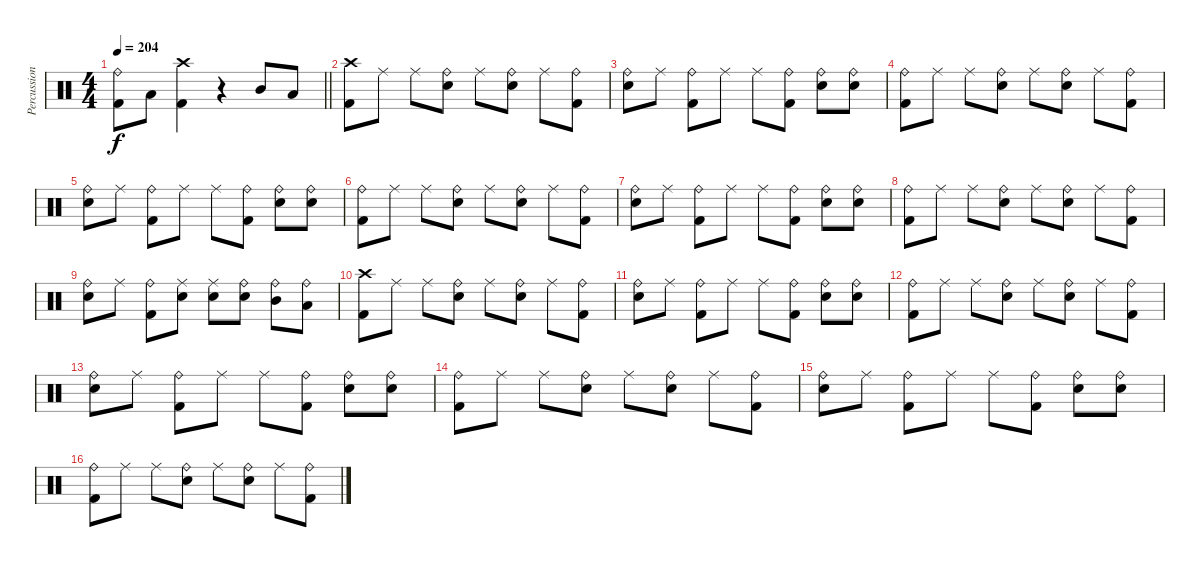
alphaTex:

\track ("Percussion" "Percussion") {instrument percussion}
\staff {score}
\articulation defaults
\ts (4 4)
\tempo 204
\clef neutral
\barLineRight lightlight
\ks c
("Ride (bell)" "Kick (hit) 2").8{dy f} "Low Floor Tom (hit)".8 ("Crash high (hit)" "Kick (hit) 2").4 r.4 "Mid Tom (hit)".8 "Low Floor Tom (hit)".8 |
("Crash high (hit)" "Kick (hit) 2").8 "Ride (middle)".8 "Ride (middle)".8 ("Ride (bell)" "Snare (hit) 2").8 "Ride (middle)".8 ("Ride (bell)" "Snare (hit) 2").8 "Ride (middle)".8 ("Ride (bell)" "Kick (hit) 2").8 |
("Ride (bell)" "Snare (hit) 2").8 "Ride (middle)".8 ("Ride (bell)" "Kick (hit) 2").8 "Ride (middle)".8 "Ride (middle)".8 ("Ride (bell)" "Kick (hit) 2").8 ("Ride (bell)" "Snare (hit) 2").8 ("Ride (bell)" "Snare (hit) 2").8 |
("Ride (bell)" "Kick (hit) 2").8 "Ride (middle)".8 "Ride (middle)".8 ("Ride (bell)" "Snare (hit) 2").8 "Ride (middle)".8 ("Ride (bell)" "Snare (hit) 2").8 "Ride (middle)".8 ("Ride (bell)" "Kick (hit) 2").8 |
("Ride (bell)" "Snare (hit) 2").8 "Ride (middle)".8 ("Ride (bell)" "Kick (hit) 2").8 "Ride (middle)".8 "Ride (middle)".8 ("Ride (bell)" "Kick (hit) 2").8 ("Ride (bell)" "Snare (hit) 2").8 ("Ride (bell)" "Snare (hit) 2").8 |
("Ride (bell)" "Kick (hit) 2").8 "Ride (middle)".8 "Ride (middle)".8 ("Ride (bell)" "Snare (hit) 2").8 "Ride (middle)".8 ("Ride (bell)" "Snare (hit) 2").8 "Ride (middle)".8 ("Ride (bell)" "Kick (hit) 2").8 |
("Ride (bell)" "Snare (hit) 2").8 "Ride (middle)".8 ("Ride (bell)" "Kick (hit) 2").8 "Ride (middle)".8 "Ride (middle)".8 ("Ride (bell)" "Kick (hit) 2").8 ("Ride (bell)" "Snare (hit) 2").8 ("Ride (bell)" "Snare (hit) 2").8 |
("Ride (bell)" "Kick (hit) 2").8 "Ride (middle)".8 "Ride (middle)".8 ("Ride (bell)" "Snare (hit) 2").8 "Ride (middle)".8 ("Ride (bell)" "Snare (hit) 2").8 "Ride (middle)".8 ("Ride (bell)" "Kick (hit) 2").8 |
("Ride (bell)" "Snare (hit) 2").8 "Ride (middle)".8 ("Ride (bell)" "Kick (hit) 2").8 ("Ride (middle)" "Snare (hit) 2").8 ("Ride (middle)" "Snare (hit) 2").8 ("Ride (bell)" "Snare (hit) 2").8 ("Ride (bell)" "Mid Tom (hit)").8 ("Ride (bell)" "Low Floor Tom (hit)").8 |
("Crash high (hit)" "Kick (hit) 2").8 "Ride (middle)".8 "Ride (middle)".8 ("Ride (bell)" "Snare (hit) 2").8 "Ride (middle)".8 ("Ride (bell)" "Snare (hit) 2").8 "Ride (middle)".8 ("Ride (bell)" "Kick (hit) 2").8 |
("Ride (bell)" "Snare (hit) 2").8 "Ride (middle)".8 ("Ride (bell)" "Kick (hit) 2").8 "Ride (middle)".8 "Ride (middle)".8 ("Ride (bell)" "Kick (hit) 2").8 ("Ride (bell)" "Snare (hit) 2").8 ("Ride (bell)" "Snare (hit) 2").8 |
("Ride (bell)" "Kick (hit) 2").8 "Ride (middle)".8 "Ride (middle)".8 ("Ride (bell)" "Snare (hit) 2").8 "Ride (middle)".8 ("Ride (bell)" "Snare (hit) 2").8 "Ride (middle)".8 ("Ride (bell)" "Kick (hit) 2").8 |
("Ride (bell)" "Snare (hit) 2").8 "Ride (middle)".8 ("Ride (bell)" "Kick (hit) 2").8 "Ride (middle)".8 "Ride (middle)".8 ("Ride (bell)" "Kick (hit) 2").8 ("Ride (bell)" "Snare (hit) 2").8 ("Ride (bell)" "Snare (hit) 2").8 |
("Ride (bell)" "Kick (hit) 2").8 "Ride (middle)".8 "Ride (middle)".8 ("Ride (bell)" "Snare (hit) 2").8 "Ride (middle)".8 ("Ride (bell)" "Snare (hit) 2").8 "Ride (middle)".8 ("Ride (bell)" "Kick (hit) 2").8 |
("Ride (bell)" "Snare (hit) 2").8 "Ride (middle)".8 ("Ride (bell)" "Kick (hit) 2").8 "Ride (middle)".8 "Ride (middle)".8 ("Ride (bell)" "Kick (hit) 2").8 ("Ride (bell)" "Snare (hit) 2").8 ("Ride (bell)" "Snare (hit) 2").8 |
("Ride (bell)" "Kick (hit) 2").8 "Ride (middle)".8 "Ride (middle)".8 ("Ride (bell)" "Snare (hit) 2").8 "Ride (middle)".8 ("Ride (bell)" "Snare (hit) 2").8 "Ride (middle)".8 ("Ride (bell)" "Kick (hit) 2").8
